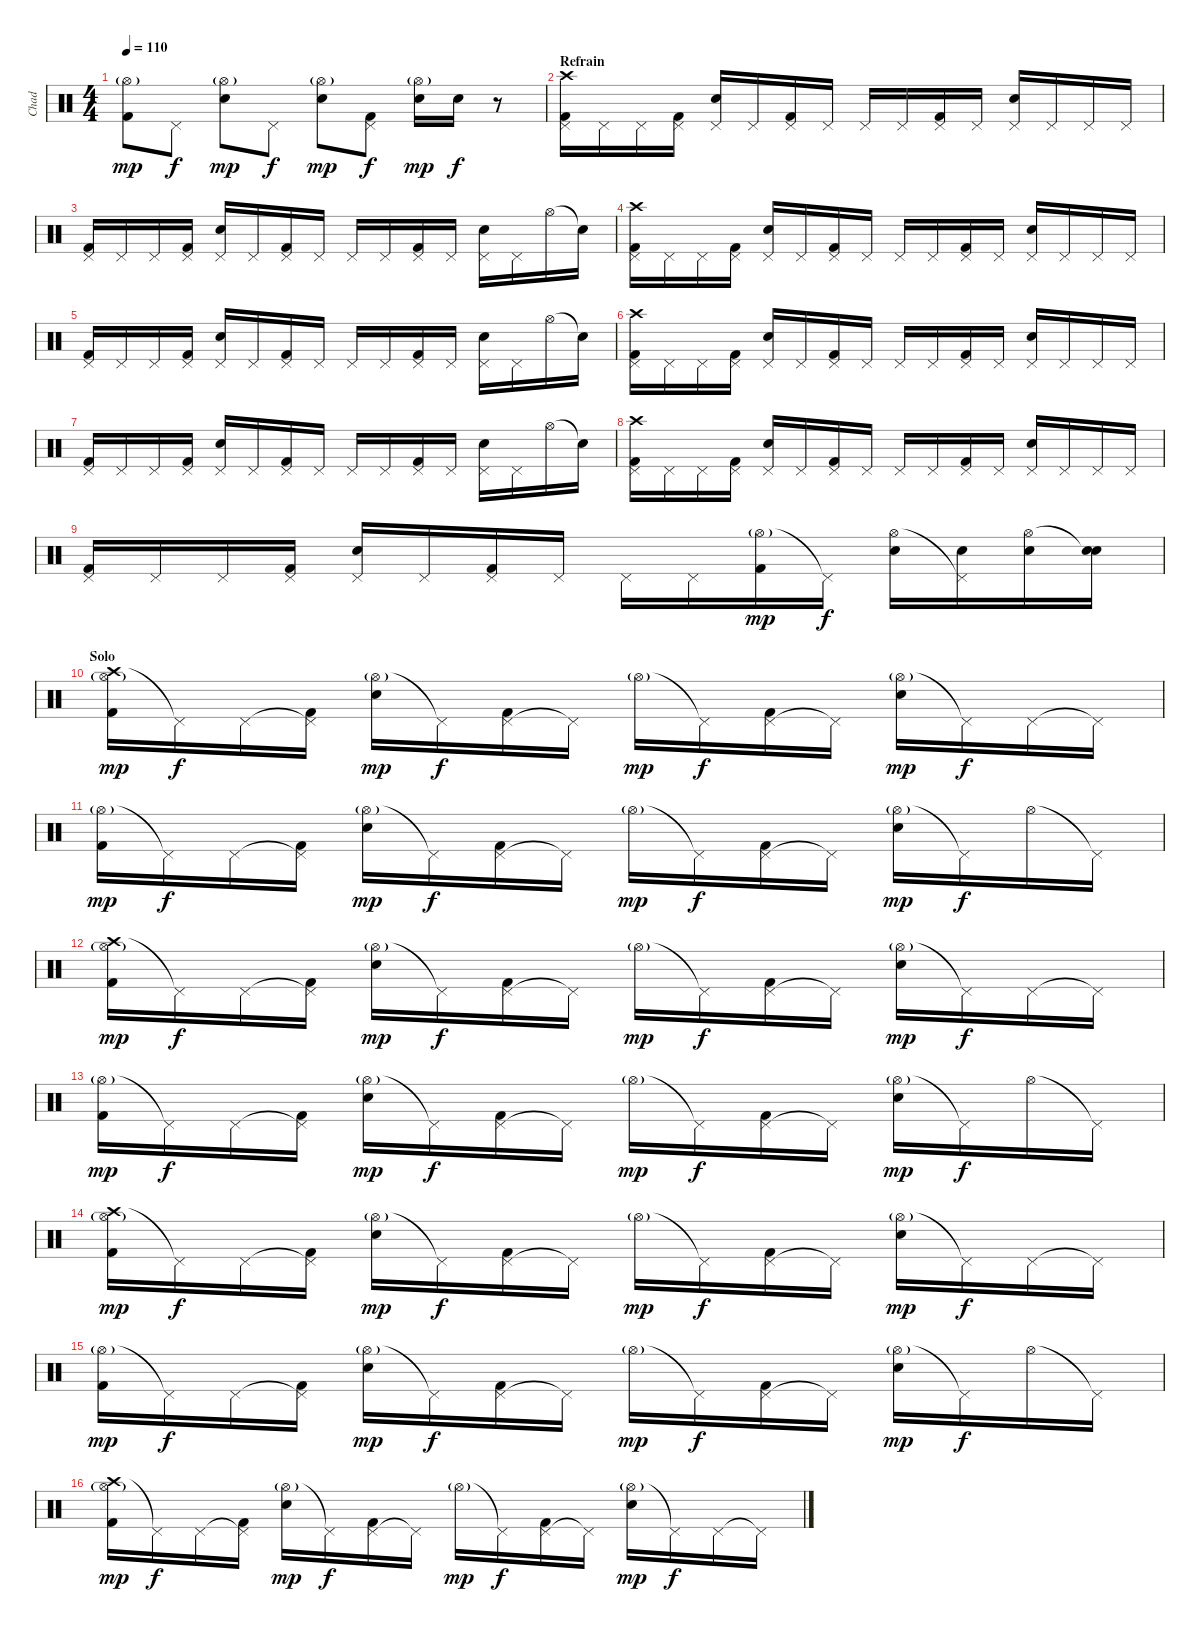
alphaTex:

\track ("Chad" "Chad") {instrument percussion}
\staff {score}
\articulation defaults
\ts (4 4)
\tempo 110
\clef neutral
\ks c
("Hi-Hat (open)"{g} "Kick (hit) 2").8{dy mp} "Pedal Hi-Hat (hit)".8{dy f} ("Hi-Hat (open)"{g} "Electric Snare (hit)").8{dy mp} "Pedal Hi-Hat (hit)".8{dy f} ("Hi-Hat (open)"{g} "Electric Snare (hit)").8{dy mp} ("Pedal Hi-Hat (hit)" "Kick (hit) 2").8{dy f} ("Hi-Hat (open)"{g} "Electric Snare (hit)").16{dy mp} "Electric Snare (hit)".16{dy f} r.8 |
\section ("" "Refrain")
("Crash high (hit)" "Pedal Hi-Hat (hit)" "Kick (hit) 2").16 "Pedal Hi-Hat (hit)".16 "Pedal Hi-Hat (hit)".16 ("Pedal Hi-Hat (hit)" "Kick (hit) 2").16 ("Pedal Hi-Hat (hit)" "Electric Snare (hit)").16 "Pedal Hi-Hat (hit)".16 ("Pedal Hi-Hat (hit)" "Kick (hit) 2").16 "Pedal Hi-Hat (hit)".16 "Pedal Hi-Hat (hit)".16 "Pedal Hi-Hat (hit)".16 ("Pedal Hi-Hat (hit)" "Kick (hit) 2").16 "Pedal Hi-Hat (hit)".16 ("Pedal Hi-Hat (hit)" "Electric Snare (hit)").16 "Pedal Hi-Hat (hit)".16 "Pedal Hi-Hat (hit)".16 "Pedal Hi-Hat (hit)".16 |
("Pedal Hi-Hat (hit)" "Kick (hit) 2").16 "Pedal Hi-Hat (hit)".16 "Pedal Hi-Hat (hit)".16 ("Pedal Hi-Hat (hit)" "Kick (hit) 2").16 ("Pedal Hi-Hat (hit)" "Electric Snare (hit)").16 "Pedal Hi-Hat (hit)".16 ("Pedal Hi-Hat (hit)" "Kick (hit) 2").16 "Pedal Hi-Hat (hit)".16 "Pedal Hi-Hat (hit)".16 "Pedal Hi-Hat (hit)".16 ("Pedal Hi-Hat (hit)" "Kick (hit) 2").16 "Pedal Hi-Hat (hit)".16 ("Pedal Hi-Hat (hit)" "Electric Snare (hit)").16 "Pedal Hi-Hat (hit)".16 "Hi-Hat (open)".16 "Snare (hit)"{t}.16 |
("Crash high (hit)" "Pedal Hi-Hat (hit)" "Kick (hit) 2").16 "Pedal Hi-Hat (hit)".16 "Pedal Hi-Hat (hit)".16 ("Pedal Hi-Hat (hit)" "Kick (hit) 2").16 ("Pedal Hi-Hat (hit)" "Electric Snare (hit)").16 "Pedal Hi-Hat (hit)".16 ("Pedal Hi-Hat (hit)" "Kick (hit) 2").16 "Pedal Hi-Hat (hit)".16 "Pedal Hi-Hat (hit)".16 "Pedal Hi-Hat (hit)".16 ("Pedal Hi-Hat (hit)" "Kick (hit) 2").16 "Pedal Hi-Hat (hit)".16 ("Pedal Hi-Hat (hit)" "Electric Snare (hit)").16 "Pedal Hi-Hat (hit)".16 "Pedal Hi-Hat (hit)".16 "Pedal Hi-Hat (hit)".16 |
("Pedal Hi-Hat (hit)" "Kick (hit) 2").16 "Pedal Hi-Hat (hit)".16 "Pedal Hi-Hat (hit)".16 ("Pedal Hi-Hat (hit)" "Kick (hit) 2").16 ("Pedal Hi-Hat (hit)" "Electric Snare (hit)").16 "Pedal Hi-Hat (hit)".16 ("Pedal Hi-Hat (hit)" "Kick (hit) 2").16 "Pedal Hi-Hat (hit)".16 "Pedal Hi-Hat (hit)".16 "Pedal Hi-Hat (hit)".16 ("Pedal Hi-Hat (hit)" "Kick (hit) 2").16 "Pedal Hi-Hat (hit)".16 ("Pedal Hi-Hat (hit)" "Electric Snare (hit)").16 "Pedal Hi-Hat (hit)".16 "Hi-Hat (open)".16 "Snare (hit)"{t}.16 |
("Crash high (hit)" "Pedal Hi-Hat (hit)" "Kick (hit) 2").16 "Pedal Hi-Hat (hit)".16 "Pedal Hi-Hat (hit)".16 ("Pedal Hi-Hat (hit)" "Kick (hit) 2").16 ("Pedal Hi-Hat (hit)" "Electric Snare (hit)").16 "Pedal Hi-Hat (hit)".16 ("Pedal Hi-Hat (hit)" "Kick (hit) 2").16 "Pedal Hi-Hat (hit)".16 "Pedal Hi-Hat (hit)".16 "Pedal Hi-Hat (hit)".16 ("Pedal Hi-Hat (hit)" "Kick (hit) 2").16 "Pedal Hi-Hat (hit)".16 ("Pedal Hi-Hat (hit)" "Electric Snare (hit)").16 "Pedal Hi-Hat (hit)".16 "Pedal Hi-Hat (hit)".16 "Pedal Hi-Hat (hit)".16 |
("Pedal Hi-Hat (hit)" "Kick (hit) 2").16 "Pedal Hi-Hat (hit)".16 "Pedal Hi-Hat (hit)".16 ("Pedal Hi-Hat (hit)" "Kick (hit) 2").16 ("Pedal Hi-Hat (hit)" "Electric Snare (hit)").16 "Pedal Hi-Hat (hit)".16 ("Pedal Hi-Hat (hit)" "Kick (hit) 2").16 "Pedal Hi-Hat (hit)".16 "Pedal Hi-Hat (hit)".16 "Pedal Hi-Hat (hit)".16 ("Pedal Hi-Hat (hit)" "Kick (hit) 2").16 "Pedal Hi-Hat (hit)".16 ("Pedal Hi-Hat (hit)" "Electric Snare (hit)").16 "Pedal Hi-Hat (hit)".16 "Hi-Hat (open)".16 "Snare (hit)"{t}.16 |
("Crash high (hit)" "Pedal Hi-Hat (hit)" "Kick (hit) 2").16 "Pedal Hi-Hat (hit)".16 "Pedal Hi-Hat (hit)".16 ("Pedal Hi-Hat (hit)" "Kick (hit) 2").16 ("Pedal Hi-Hat (hit)" "Electric Snare (hit)").16 "Pedal Hi-Hat (hit)".16 ("Pedal Hi-Hat (hit)" "Kick (hit) 2").16 "Pedal Hi-Hat (hit)".16 "Pedal Hi-Hat (hit)".16 "Pedal Hi-Hat (hit)".16 ("Pedal Hi-Hat (hit)" "Kick (hit) 2").16 "Pedal Hi-Hat (hit)".16 ("Pedal Hi-Hat (hit)" "Electric Snare (hit)").16 "Pedal Hi-Hat (hit)".16 "Pedal Hi-Hat (hit)".16 "Pedal Hi-Hat (hit)".16 |
("Pedal Hi-Hat (hit)" "Kick (hit) 2").16 "Pedal Hi-Hat (hit)".16 "Pedal Hi-Hat (hit)".16 ("Pedal Hi-Hat (hit)" "Kick (hit) 2").16 ("Pedal Hi-Hat (hit)" "Electric Snare (hit)").16 "Pedal Hi-Hat (hit)".16 ("Pedal Hi-Hat (hit)" "Kick (hit) 2").16 "Pedal Hi-Hat (hit)".16 "Pedal Hi-Hat (hit)".16 "Pedal Hi-Hat (hit)".16 ("Hi-Hat (open)"{g} "Kick (hit) 2").16{dy mp} "Pedal Hi-Hat (hit)"{t}.16{dy f} ("Hi-Hat (open)" "Electric Snare (hit)").16 ("Pedal Hi-Hat (hit)"{t} "Electric Snare (hit)").16 ("Hi-Hat (open)" "Electric Snare (hit)").16 ("Snare (hit)"{t} "Electric Snare (hit)").16 |
\section ("" "Solo")
("Crash high (hit)" "Hi-Hat (open)"{g} "Kick (hit) 2").16{dy mp} "Pedal Hi-Hat (hit)"{t}.16{dy f} "Pedal Hi-Hat (hit)".16 ("Pedal Hi-Hat (hit)"{t} "Kick (hit) 2").16 ("Hi-Hat (open)"{g} "Electric Snare (hit)").16{dy mp} "Pedal Hi-Hat (hit)"{t}.16{dy f} ("Pedal Hi-Hat (hit)" "Kick (hit) 2").16 "Pedal Hi-Hat (hit)"{t}.16 "Hi-Hat (open)"{g}.16{dy mp} "Pedal Hi-Hat (hit)"{t}.16{dy f} ("Pedal Hi-Hat (hit)" "Kick (hit) 2").16 "Pedal Hi-Hat (hit)"{t}.16 ("Hi-Hat (open)"{g} "Electric Snare (hit)").16{dy mp} "Pedal Hi-Hat (hit)"{t}.16{dy f} "Pedal Hi-Hat (hit)".16 "Pedal Hi-Hat (hit)"{t}.16 |
("Hi-Hat (open)"{g} "Kick (hit) 2").16{dy mp} "Pedal Hi-Hat (hit)"{t}.16{dy f} "Pedal Hi-Hat (hit)".16 ("Pedal Hi-Hat (hit)"{t} "Kick (hit) 2").16 ("Hi-Hat (open)"{g} "Electric Snare (hit)").16{dy mp} "Pedal Hi-Hat (hit)"{t}.16{dy f} ("Pedal Hi-Hat (hit)" "Kick (hit) 2").16 "Pedal Hi-Hat (hit)"{t}.16 "Hi-Hat (open)"{g}.16{dy mp} "Pedal Hi-Hat (hit)"{t}.16{dy f} ("Pedal Hi-Hat (hit)" "Kick (hit) 2").16 "Pedal Hi-Hat (hit)"{t}.16 ("Hi-Hat (open)"{g} "Electric Snare (hit)").16{dy mp} "Pedal Hi-Hat (hit)"{t}.16{dy f} "Hi-Hat (open)".16 "Pedal Hi-Hat (hit)"{t}.16 |
("Crash high (hit)" "Hi-Hat (open)"{g} "Kick (hit) 2").16{dy mp} "Pedal Hi-Hat (hit)"{t}.16{dy f} "Pedal Hi-Hat (hit)".16 ("Pedal Hi-Hat (hit)"{t} "Kick (hit) 2").16 ("Hi-Hat (open)"{g} "Electric Snare (hit)").16{dy mp} "Pedal Hi-Hat (hit)"{t}.16{dy f} ("Pedal Hi-Hat (hit)" "Kick (hit) 2").16 "Pedal Hi-Hat (hit)"{t}.16 "Hi-Hat (open)"{g}.16{dy mp} "Pedal Hi-Hat (hit)"{t}.16{dy f} ("Pedal Hi-Hat (hit)" "Kick (hit) 2").16 "Pedal Hi-Hat (hit)"{t}.16 ("Hi-Hat (open)"{g} "Electric Snare (hit)").16{dy mp} "Pedal Hi-Hat (hit)"{t}.16{dy f} "Pedal Hi-Hat (hit)".16 "Pedal Hi-Hat (hit)"{t}.16 |
("Hi-Hat (open)"{g} "Kick (hit) 2").16{dy mp} "Pedal Hi-Hat (hit)"{t}.16{dy f} "Pedal Hi-Hat (hit)".16 ("Pedal Hi-Hat (hit)"{t} "Kick (hit) 2").16 ("Hi-Hat (open)"{g} "Electric Snare (hit)").16{dy mp} "Pedal Hi-Hat (hit)"{t}.16{dy f} ("Pedal Hi-Hat (hit)" "Kick (hit) 2").16 "Pedal Hi-Hat (hit)"{t}.16 "Hi-Hat (open)"{g}.16{dy mp} "Pedal Hi-Hat (hit)"{t}.16{dy f} ("Pedal Hi-Hat (hit)" "Kick (hit) 2").16 "Pedal Hi-Hat (hit)"{t}.16 ("Hi-Hat (open)"{g} "Electric Snare (hit)").16{dy mp} "Pedal Hi-Hat (hit)"{t}.16{dy f} "Hi-Hat (open)".16 "Pedal Hi-Hat (hit)"{t}.16 |
("Crash high (hit)" "Hi-Hat (open)"{g} "Kick (hit) 2").16{dy mp} "Pedal Hi-Hat (hit)"{t}.16{dy f} "Pedal Hi-Hat (hit)".16 ("Pedal Hi-Hat (hit)"{t} "Kick (hit) 2").16 ("Hi-Hat (open)"{g} "Electric Snare (hit)").16{dy mp} "Pedal Hi-Hat (hit)"{t}.16{dy f} ("Pedal Hi-Hat (hit)" "Kick (hit) 2").16 "Pedal Hi-Hat (hit)"{t}.16 "Hi-Hat (open)"{g}.16{dy mp} "Pedal Hi-Hat (hit)"{t}.16{dy f} ("Pedal Hi-Hat (hit)" "Kick (hit) 2").16 "Pedal Hi-Hat (hit)"{t}.16 ("Hi-Hat (open)"{g} "Electric Snare (hit)").16{dy mp} "Pedal Hi-Hat (hit)"{t}.16{dy f} "Pedal Hi-Hat (hit)".16 "Pedal Hi-Hat (hit)"{t}.16 |
("Hi-Hat (open)"{g} "Kick (hit) 2").16{dy mp} "Pedal Hi-Hat (hit)"{t}.16{dy f} "Pedal Hi-Hat (hit)".16 ("Pedal Hi-Hat (hit)"{t} "Kick (hit) 2").16 ("Hi-Hat (open)"{g} "Electric Snare (hit)").16{dy mp} "Pedal Hi-Hat (hit)"{t}.16{dy f} ("Pedal Hi-Hat (hit)" "Kick (hit) 2").16 "Pedal Hi-Hat (hit)"{t}.16 "Hi-Hat (open)"{g}.16{dy mp} "Pedal Hi-Hat (hit)"{t}.16{dy f} ("Pedal Hi-Hat (hit)" "Kick (hit) 2").16 "Pedal Hi-Hat (hit)"{t}.16 ("Hi-Hat (open)"{g} "Electric Snare (hit)").16{dy mp} "Pedal Hi-Hat (hit)"{t}.16{dy f} "Hi-Hat (open)".16 "Pedal Hi-Hat (hit)"{t}.16 |
("Crash high (hit)" "Hi-Hat (open)"{g} "Kick (hit) 2").16{dy mp} "Pedal Hi-Hat (hit)"{t}.16{dy f} "Pedal Hi-Hat (hit)".16 ("Pedal Hi-Hat (hit)"{t} "Kick (hit) 2").16 ("Hi-Hat (open)"{g} "Electric Snare (hit)").16{dy mp} "Pedal Hi-Hat (hit)"{t}.16{dy f} ("Pedal Hi-Hat (hit)" "Kick (hit) 2").16 "Pedal Hi-Hat (hit)"{t}.16 "Hi-Hat (open)"{g}.16{dy mp} "Pedal Hi-Hat (hit)"{t}.16{dy f} ("Pedal Hi-Hat (hit)" "Kick (hit) 2").16 "Pedal Hi-Hat (hit)"{t}.16 ("Hi-Hat (open)"{g} "Electric Snare (hit)").16{dy mp} "Pedal Hi-Hat (hit)"{t}.16{dy f} "Pedal Hi-Hat (hit)".16 "Pedal Hi-Hat (hit)"{t}.16
